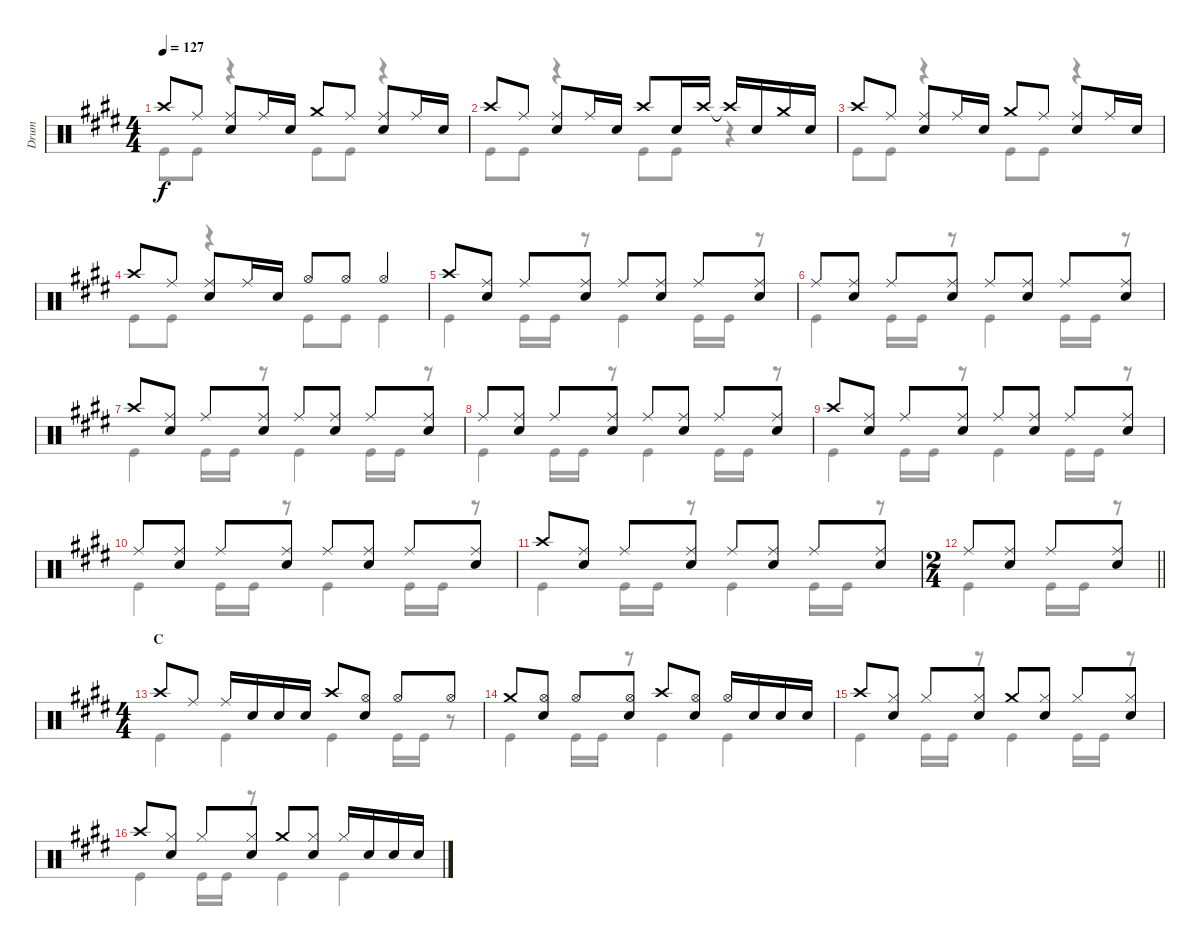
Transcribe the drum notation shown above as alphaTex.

\track ("Drum" "Drum") {instrument percussion}
\staff {score}
\articulation defaults
\voice
\ts (4 4)
\tempo 127
\clef neutral
\ks e "Crash high (hit)".8{dy f} "Ride (middle)".8
("Snare (hit) 2" "Ride (middle)").8 "Ride (middle)".16 "Snare (hit) 2".16 "Crash medium (hit)".8 "Ride (middle)".8 ("Ride (middle)" "Snare (hit) 2").8 "Ride (middle)".16 "Snare (hit) 2".16 |
"Crash high (hit)".8 "Ride (middle)".8 ("Snare (hit) 2" "Ride (middle)").8 "Ride (middle)".16 "Snare (hit) 2".16 "Crash high (hit)".8 "Snare (hit) 2".16 "Crash high (hit)".16 "Crash high (hit)"{t}.16 "Snare (hit) 2".16 "Crash medium (hit)".16 "Snare (hit) 2".16 |
"Crash high (hit)".8 "Ride (middle)".8 ("Snare (hit) 2" "Ride (middle)").8 "Ride (middle)".16 "Snare (hit) 2".16 "Crash medium (hit)".8 "Ride (middle)".8 ("Ride (middle)" "Snare (hit) 2").8 "Ride (middle)".16 "Snare (hit) 2".16 |
"Crash high (hit)".8 "Ride (middle)".8 ("Snare (hit) 2" "Ride (middle)").8 "Ride (middle)".16 "Snare (hit) 2".16 "Hi-Hat (open)".8 "Hi-Hat (open)".8 "Hi-Hat (open)".4 |
"Crash high (hit)".8 ("Snare (hit) 2" "Ride (middle)").8 "Ride (middle)".8 ("Ride (middle)" "Snare (hit) 2").8 "Ride (middle)".8 ("Ride (middle)" "Snare (hit) 2").8 "Ride (middle)".8 ("Ride (middle)" "Snare (hit) 2").8 |
"Ride (middle)".8 ("Ride (middle)" "Snare (hit) 2").8 "Ride (middle)".8 ("Ride (middle)" "Snare (hit) 2").8 "Ride (middle)".8 ("Ride (middle)" "Snare (hit) 2").8 "Ride (middle)".8 ("Ride (middle)" "Snare (hit) 2").8 |
"Crash high (hit)".8 ("Snare (hit) 2" "Ride (middle)").8 "Ride (middle)".8 ("Ride (middle)" "Snare (hit) 2").8 "Ride (middle)".8 ("Ride (middle)" "Snare (hit) 2").8 "Ride (middle)".8 ("Ride (middle)" "Snare (hit) 2").8 |
"Ride (middle)".8 ("Ride (middle)" "Snare (hit) 2").8 "Ride (middle)".8 ("Ride (middle)" "Snare (hit) 2").8 "Ride (middle)".8 ("Ride (middle)" "Snare (hit) 2").8 "Ride (middle)".8 ("Ride (middle)" "Snare (hit) 2").8 |
"Crash high (hit)".8 ("Snare (hit) 2" "Ride (middle)").8 "Ride (middle)".8 ("Ride (middle)" "Snare (hit) 2").8 "Ride (middle)".8 ("Ride (middle)" "Snare (hit) 2").8 "Ride (middle)".8 ("Ride (middle)" "Snare (hit) 2").8 |
"Ride (middle)".8 ("Ride (middle)" "Snare (hit) 2").8 "Ride (middle)".8 ("Ride (middle)" "Snare (hit) 2").8 "Ride (middle)".8 ("Ride (middle)" "Snare (hit) 2").8 "Ride (middle)".8 ("Ride (middle)" "Snare (hit) 2").8 |
"Crash high (hit)".8 ("Snare (hit) 2" "Ride (middle)").8 "Ride (middle)".8 ("Ride (middle)" "Snare (hit) 2").8 "Ride (middle)".8 ("Ride (middle)" "Snare (hit) 2").8 "Ride (middle)".8 ("Ride (middle)" "Snare (hit) 2").8 |
\ts (2 4)
\barLineRight lightlight "Ride (middle)".8
("Ride (middle)" "Snare (hit) 2").8 "Ride (middle)".8 ("Ride (middle)" "Snare (hit) 2").8 |
\ts (4 4)
\section ("" "C")
"Crash high (hit)".8 "Ride (middle)".8 "Ride (middle)".16 "Snare (hit) 2".16 "Snare (hit) 2".16 "Snare (hit) 2".16 "Crash high (hit)".8 ("Hi-Hat (open)" "Snare (hit) 2").8 "Hi-Hat (open)".8 "Hi-Hat (open)".8 |
"Crash medium (hit)".8 ("Hi-Hat (open)" "Snare (hit) 2").8 "Hi-Hat (open)".8 ("Hi-Hat (open)" "Snare (hit) 2").8 "Crash high (hit)".8 ("Snare (hit) 2" "Hi-Hat (open)").8 "Hi-Hat (open)".16 "Snare (hit) 2".16 "Snare (hit) 2".16 "Snare (hit) 2".16 |
"Crash high (hit)".8 ("Hi-Hat (closed)" "Snare (hit) 2").8 "Hi-Hat (closed)".8 ("Hi-Hat (closed)" "Snare (hit) 2").8 "Crash medium (hit)".8 ("Hi-Hat (closed)" "Snare (hit) 2").8 "Hi-Hat (closed)".8 ("Hi-Hat (closed)" "Snare (hit) 2").8 |
"Crash high (hit)".8 ("Hi-Hat (closed)" "Snare (hit) 2").8 "Hi-Hat (closed)".8 ("Hi-Hat (closed)" "Snare (hit) 2").8 "Crash medium (hit)".8 ("Hi-Hat (closed)" "Snare (hit) 2").8 "Hi-Hat (closed)".16 "Snare (hit) 2".16 "Snare (hit) 2".16 "Snare (hit) 2".16
\voice
\clef neutral
\ottava regular
\simile none
\ks e "Kick (hit)".8{dy f} "Kick (hit)".8
r.4 "Kick (hit)".8 "Kick (hit)".8 r.4 |
"Kick (hit)".8 "Kick (hit)".8 r.4 "Kick (hit)".8 "Kick (hit)".8 r.4 |
"Kick (hit)".8 "Kick (hit)".8 r.4 "Kick (hit)".8 "Kick (hit)".8 r.4 |
"Kick (hit)".8 "Kick (hit)".8 r.4 "Kick (hit)".8 "Kick (hit)".8 "Kick (hit)".4 |
"Kick (hit)".4 "Kick (hit)".16 "Kick (hit)".16 r.8 "Kick (hit)".4 "Kick (hit)".16 "Kick (hit)".16 r.8 |
"Kick (hit)".4 "Kick (hit)".16 "Kick (hit)".16 r.8 "Kick (hit)".4 "Kick (hit)".16 "Kick (hit)".16 r.8 |
"Kick (hit)".4 "Kick (hit)".16 "Kick (hit)".16 r.8 "Kick (hit)".4 "Kick (hit)".16 "Kick (hit)".16 r.8 |
"Kick (hit)".4 "Kick (hit)".16 "Kick (hit)".16 r.8 "Kick (hit)".4 "Kick (hit)".16 "Kick (hit)".16 r.8 |
"Kick (hit)".4 "Kick (hit)".16 "Kick (hit)".16 r.8 "Kick (hit)".4 "Kick (hit)".16 "Kick (hit)".16 r.8 |
"Kick (hit)".4 "Kick (hit)".16 "Kick (hit)".16 r.8 "Kick (hit)".4 "Kick (hit)".16 "Kick (hit)".16 r.8 |
"Kick (hit)".4 "Kick (hit)".16 "Kick (hit)".16 r.8 "Kick (hit)".4 "Kick (hit)".16 "Kick (hit)".16 r.8 |
\barLineRight lightlight "Kick (hit)".4 "Kick (hit)".16 "Kick (hit)".16
r.8 |
"Kick (hit)".4 "Kick (hit)".4 "Kick (hit)".4 "Kick (hit)".16 "Kick (hit)".16 r.8 |
"Kick (hit)".4 "Kick (hit)".16 "Kick (hit)".16 r.8 "Kick (hit)".4 "Kick (hit)".4 |
"Kick (hit)".4 "Kick (hit)".16 "Kick (hit)".16 r.8 "Kick (hit)".4 "Kick (hit)".16 "Kick (hit)".16 r.8 |
"Kick (hit)".4 "Kick (hit)".16 "Kick (hit)".16 r.8 "Kick (hit)".4 "Kick (hit)".4
